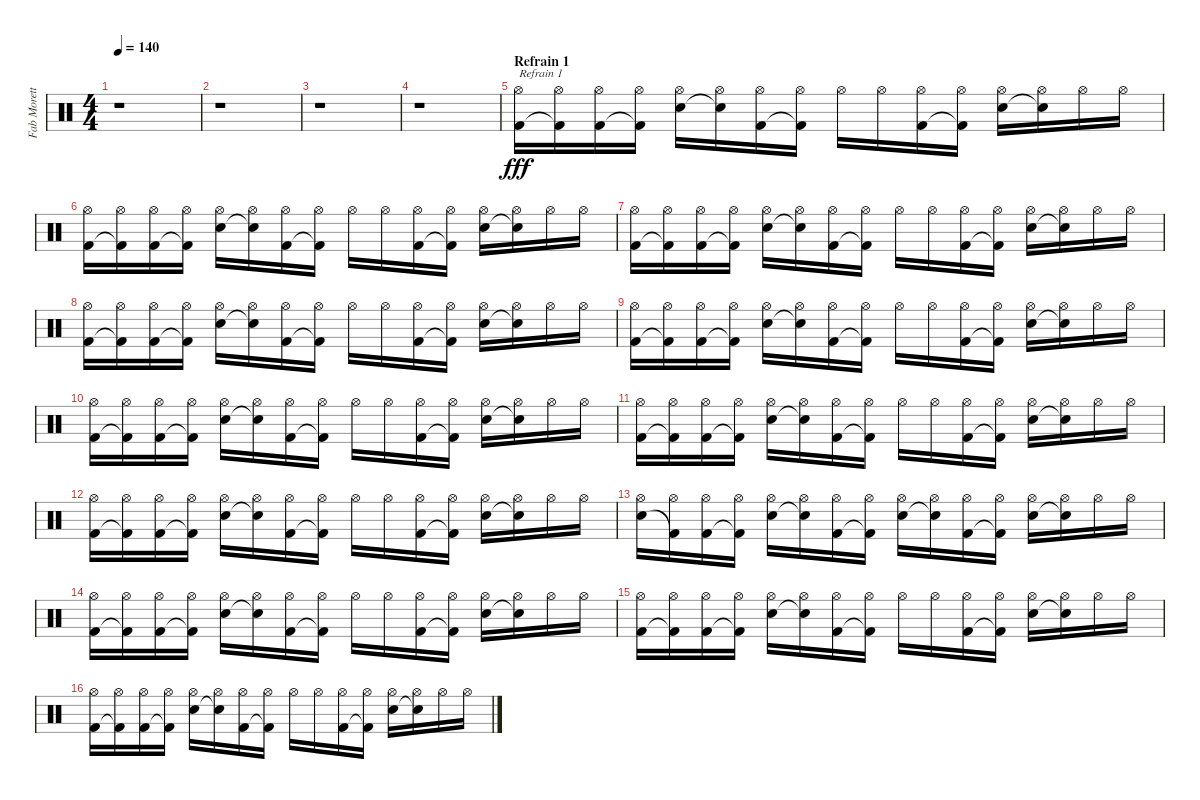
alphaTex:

\track ("Fab Moretti" "Fab Morett") {instrument percussion}
\staff {score}
\articulation defaults
\ts (4 4)
\tempo 140
\clef neutral
\ks c
r.1{dy fff} |
r.1 |
r.1 |
r.1 |
\section ("" "Refrain 1")
("Hi-Hat (open)" "Kick (hit) 2").16{txt "Refrain 1"} ("Hi-Hat (open)" "Kick (hit) 2"{t}).16 ("Hi-Hat (open)" "Kick (hit) 2").16 ("Hi-Hat (open)" "Kick (hit) 2"{t}).16 ("Hi-Hat (open)" "Snare (hit) 2").16 ("Hi-Hat (open)" "Snare (hit) 2"{t}).16 ("Hi-Hat (open)" "Kick (hit) 2").16 ("Hi-Hat (open)" "Kick (hit) 2"{t}).16 "Hi-Hat (open)".16 "Hi-Hat (open)".16 ("Hi-Hat (open)" "Kick (hit) 2").16 ("Hi-Hat (open)" "Kick (hit) 2"{t}).16 ("Hi-Hat (open)" "Snare (hit) 2").16 ("Hi-Hat (open)" "Snare (hit) 2"{t}).16 "Hi-Hat (open)".16 "Hi-Hat (open)".16 |
("Hi-Hat (open)" "Kick (hit) 2").16 ("Hi-Hat (open)" "Kick (hit) 2"{t}).16 ("Hi-Hat (open)" "Kick (hit) 2").16 ("Hi-Hat (open)" "Kick (hit) 2"{t}).16 ("Hi-Hat (open)" "Snare (hit) 2").16 ("Hi-Hat (open)" "Snare (hit) 2"{t}).16 ("Hi-Hat (open)" "Kick (hit) 2").16 ("Hi-Hat (open)" "Kick (hit) 2"{t}).16 "Hi-Hat (open)".16 "Hi-Hat (open)".16 ("Hi-Hat (open)" "Kick (hit) 2").16 ("Hi-Hat (open)" "Kick (hit) 2"{t}).16 ("Hi-Hat (open)" "Snare (hit) 2").16 ("Hi-Hat (open)" "Snare (hit) 2"{t}).16 "Hi-Hat (open)".16 "Hi-Hat (open)".16 |
("Hi-Hat (open)" "Kick (hit) 2").16 ("Hi-Hat (open)" "Kick (hit) 2"{t}).16 ("Hi-Hat (open)" "Kick (hit) 2").16 ("Hi-Hat (open)" "Kick (hit) 2"{t}).16 ("Hi-Hat (open)" "Snare (hit) 2").16 ("Hi-Hat (open)" "Snare (hit) 2"{t}).16 ("Hi-Hat (open)" "Kick (hit) 2").16 ("Hi-Hat (open)" "Kick (hit) 2"{t}).16 "Hi-Hat (open)".16 "Hi-Hat (open)".16 ("Hi-Hat (open)" "Kick (hit) 2").16 ("Hi-Hat (open)" "Kick (hit) 2"{t}).16 ("Hi-Hat (open)" "Snare (hit) 2").16 ("Hi-Hat (open)" "Snare (hit) 2"{t}).16 "Hi-Hat (open)".16 "Hi-Hat (open)".16 |
("Hi-Hat (open)" "Kick (hit) 2").16 ("Hi-Hat (open)" "Kick (hit) 2"{t}).16 ("Hi-Hat (open)" "Kick (hit) 2").16 ("Hi-Hat (open)" "Kick (hit) 2"{t}).16 ("Hi-Hat (open)" "Snare (hit) 2").16 ("Hi-Hat (open)" "Snare (hit) 2"{t}).16 ("Hi-Hat (open)" "Kick (hit) 2").16 ("Hi-Hat (open)" "Kick (hit) 2"{t}).16 "Hi-Hat (open)".16 "Hi-Hat (open)".16 ("Hi-Hat (open)" "Kick (hit) 2").16 ("Hi-Hat (open)" "Kick (hit) 2"{t}).16 ("Hi-Hat (open)" "Snare (hit) 2").16 ("Hi-Hat (open)" "Snare (hit) 2"{t}).16 "Hi-Hat (open)".16 "Hi-Hat (open)".16 |
("Hi-Hat (open)" "Kick (hit) 2").16 ("Hi-Hat (open)" "Kick (hit) 2"{t}).16 ("Hi-Hat (open)" "Kick (hit) 2").16 ("Hi-Hat (open)" "Kick (hit) 2"{t}).16 ("Hi-Hat (open)" "Snare (hit) 2").16 ("Hi-Hat (open)" "Snare (hit) 2"{t}).16 ("Hi-Hat (open)" "Kick (hit) 2").16 ("Hi-Hat (open)" "Kick (hit) 2"{t}).16 "Hi-Hat (open)".16 "Hi-Hat (open)".16 ("Hi-Hat (open)" "Kick (hit) 2").16 ("Hi-Hat (open)" "Kick (hit) 2"{t}).16 ("Hi-Hat (open)" "Snare (hit) 2").16 ("Hi-Hat (open)" "Snare (hit) 2"{t}).16 "Hi-Hat (open)".16 "Hi-Hat (open)".16 |
("Hi-Hat (open)" "Kick (hit) 2").16 ("Hi-Hat (open)" "Kick (hit) 2"{t}).16 ("Hi-Hat (open)" "Kick (hit) 2").16 ("Hi-Hat (open)" "Kick (hit) 2"{t}).16 ("Hi-Hat (open)" "Snare (hit) 2").16 ("Hi-Hat (open)" "Snare (hit) 2"{t}).16 ("Hi-Hat (open)" "Kick (hit) 2").16 ("Hi-Hat (open)" "Kick (hit) 2"{t}).16 "Hi-Hat (open)".16 "Hi-Hat (open)".16 ("Hi-Hat (open)" "Kick (hit) 2").16 ("Hi-Hat (open)" "Kick (hit) 2"{t}).16 ("Hi-Hat (open)" "Snare (hit) 2").16 ("Hi-Hat (open)" "Snare (hit) 2"{t}).16 "Hi-Hat (open)".16 "Hi-Hat (open)".16 |
("Hi-Hat (open)" "Kick (hit) 2").16 ("Hi-Hat (open)" "Kick (hit) 2"{t}).16 ("Hi-Hat (open)" "Kick (hit) 2").16 ("Hi-Hat (open)" "Kick (hit) 2"{t}).16 ("Hi-Hat (open)" "Snare (hit) 2").16 ("Hi-Hat (open)" "Snare (hit) 2"{t}).16 ("Hi-Hat (open)" "Kick (hit) 2").16 ("Hi-Hat (open)" "Kick (hit) 2"{t}).16 "Hi-Hat (open)".16 "Hi-Hat (open)".16 ("Hi-Hat (open)" "Kick (hit) 2").16 ("Hi-Hat (open)" "Kick (hit) 2"{t}).16 ("Hi-Hat (open)" "Snare (hit) 2").16 ("Hi-Hat (open)" "Snare (hit) 2"{t}).16 "Hi-Hat (open)".16 "Hi-Hat (open)".16 |
("Hi-Hat (open)" "Kick (hit) 2").16 ("Hi-Hat (open)" "Kick (hit) 2"{t}).16 ("Hi-Hat (open)" "Kick (hit) 2").16 ("Hi-Hat (open)" "Kick (hit) 2"{t}).16 ("Hi-Hat (open)" "Snare (hit) 2").16 ("Hi-Hat (open)" "Snare (hit) 2"{t}).16 ("Hi-Hat (open)" "Kick (hit) 2").16 ("Hi-Hat (open)" "Kick (hit) 2"{t}).16 "Hi-Hat (open)".16 "Hi-Hat (open)".16 ("Hi-Hat (open)" "Kick (hit) 2").16 ("Hi-Hat (open)" "Kick (hit) 2"{t}).16 ("Hi-Hat (open)" "Snare (hit) 2").16 ("Hi-Hat (open)" "Snare (hit) 2"{t}).16 "Hi-Hat (open)".16 "Hi-Hat (open)".16 |
("Hi-Hat (open)" "Snare (hit) 2").16 ("Hi-Hat (open)" "Kick (hit) 2"{t}).16 ("Hi-Hat (open)" "Kick (hit) 2").16 ("Hi-Hat (open)" "Kick (hit) 2"{t}).16 ("Hi-Hat (open)" "Snare (hit) 2").16 ("Hi-Hat (open)" "Snare (hit) 2"{t}).16 ("Hi-Hat (open)" "Kick (hit) 2").16 ("Hi-Hat (open)" "Kick (hit) 2"{t}).16 ("Hi-Hat (open)" "Snare (hit) 2").16 ("Hi-Hat (open)" "Snare (hit)"{t}).16 ("Hi-Hat (open)" "Kick (hit) 2").16 ("Hi-Hat (open)" "Kick (hit) 2"{t}).16 ("Hi-Hat (open)" "Snare (hit) 2").16 ("Hi-Hat (open)" "Snare (hit) 2"{t}).16 "Hi-Hat (open)".16 "Hi-Hat (open)".16 |
("Hi-Hat (open)" "Kick (hit) 2").16 ("Hi-Hat (open)" "Kick (hit) 2"{t}).16 ("Hi-Hat (open)" "Kick (hit) 2").16 ("Hi-Hat (open)" "Kick (hit) 2"{t}).16 ("Hi-Hat (open)" "Snare (hit) 2").16 ("Hi-Hat (open)" "Snare (hit) 2"{t}).16 ("Hi-Hat (open)" "Kick (hit) 2").16 ("Hi-Hat (open)" "Kick (hit) 2"{t}).16 "Hi-Hat (open)".16 "Hi-Hat (open)".16 ("Hi-Hat (open)" "Kick (hit) 2").16 ("Hi-Hat (open)" "Kick (hit) 2"{t}).16 ("Hi-Hat (open)" "Snare (hit) 2").16 ("Hi-Hat (open)" "Snare (hit) 2"{t}).16 "Hi-Hat (open)".16 "Hi-Hat (open)".16 |
("Hi-Hat (open)" "Kick (hit) 2").16 ("Hi-Hat (open)" "Kick (hit) 2"{t}).16 ("Hi-Hat (open)" "Kick (hit) 2").16 ("Hi-Hat (open)" "Kick (hit) 2"{t}).16 ("Hi-Hat (open)" "Snare (hit) 2").16 ("Hi-Hat (open)" "Snare (hit) 2"{t}).16 ("Hi-Hat (open)" "Kick (hit) 2").16 ("Hi-Hat (open)" "Kick (hit) 2"{t}).16 "Hi-Hat (open)".16 "Hi-Hat (open)".16 ("Hi-Hat (open)" "Kick (hit) 2").16 ("Hi-Hat (open)" "Kick (hit) 2"{t}).16 ("Hi-Hat (open)" "Snare (hit) 2").16 ("Hi-Hat (open)" "Snare (hit) 2"{t}).16 "Hi-Hat (open)".16 "Hi-Hat (open)".16 |
("Hi-Hat (open)" "Kick (hit) 2").16 ("Hi-Hat (open)" "Kick (hit) 2"{t}).16 ("Hi-Hat (open)" "Kick (hit) 2").16 ("Hi-Hat (open)" "Kick (hit) 2"{t}).16 ("Hi-Hat (open)" "Snare (hit) 2").16 ("Hi-Hat (open)" "Snare (hit) 2"{t}).16 ("Hi-Hat (open)" "Kick (hit) 2").16 ("Hi-Hat (open)" "Kick (hit) 2"{t}).16 "Hi-Hat (open)".16 "Hi-Hat (open)".16 ("Hi-Hat (open)" "Kick (hit) 2").16 ("Hi-Hat (open)" "Kick (hit) 2"{t}).16 ("Hi-Hat (open)" "Snare (hit) 2").16 ("Hi-Hat (open)" "Snare (hit) 2"{t}).16 "Hi-Hat (open)".16 "Hi-Hat (open)".16
